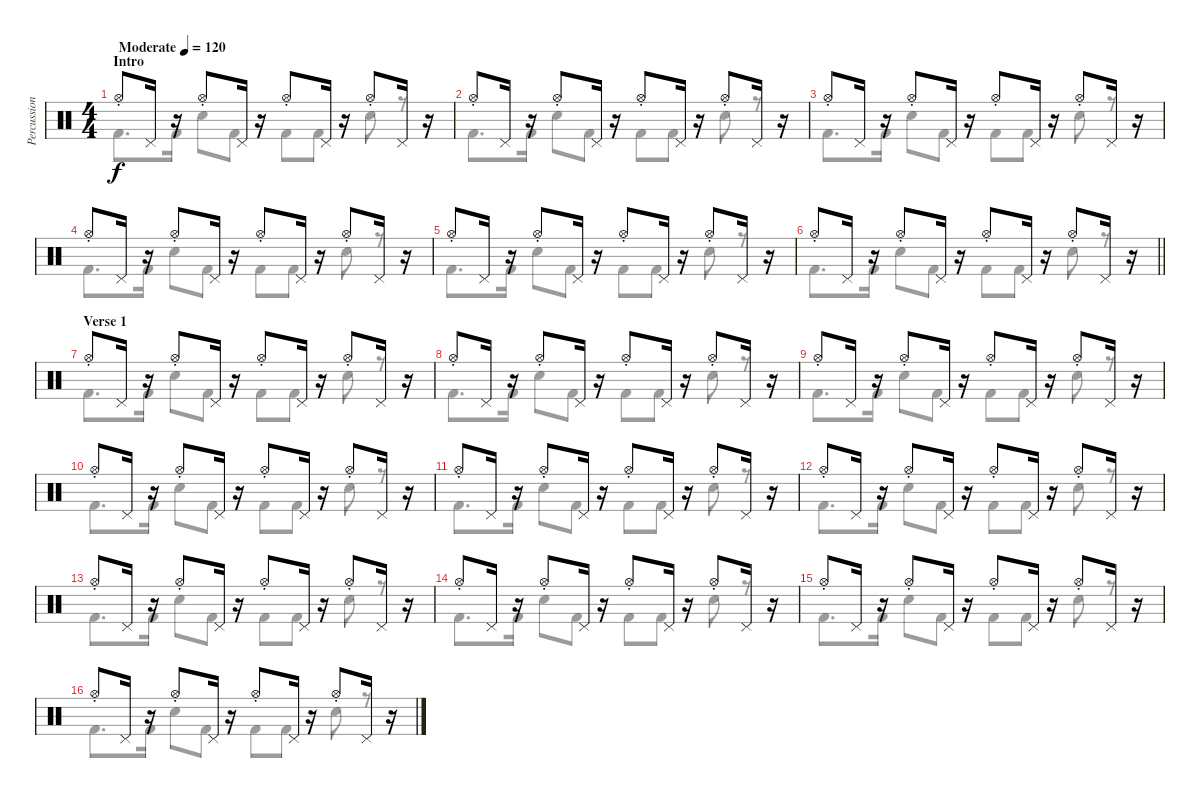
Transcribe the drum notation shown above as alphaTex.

\track ("Percussion" "Percussion") {instrument percussion}
\staff {score}
\articulation defaults
\voice
\ts (4 4)
\section ("" "Intro")
\tempo (120 "Moderate")
\clef neutral
\ks c "Hi-Hat (open)"{st}.8{dy f} "Pedal Hi-Hat (hit)".16
r.16 "Hi-Hat (open)"{st}.8 "Pedal Hi-Hat (hit)".16 r.16 "Hi-Hat (open)"{st}.8 "Pedal Hi-Hat (hit)".16 r.16 "Hi-Hat (open)"{st}.8 "Pedal Hi-Hat (hit)".16 r.16 |
"Hi-Hat (open)"{st}.8 "Pedal Hi-Hat (hit)".16 r.16 "Hi-Hat (open)"{st}.8 "Pedal Hi-Hat (hit)".16 r.16 "Hi-Hat (open)"{st}.8 "Pedal Hi-Hat (hit)".16 r.16 "Hi-Hat (open)"{st}.8 "Pedal Hi-Hat (hit)".16 r.16 |
"Hi-Hat (open)"{st}.8 "Pedal Hi-Hat (hit)".16 r.16 "Hi-Hat (open)"{st}.8 "Pedal Hi-Hat (hit)".16 r.16 "Hi-Hat (open)"{st}.8 "Pedal Hi-Hat (hit)".16 r.16 "Hi-Hat (open)"{st}.8 "Pedal Hi-Hat (hit)".16 r.16 |
"Hi-Hat (open)"{st}.8 "Pedal Hi-Hat (hit)".16 r.16 "Hi-Hat (open)"{st}.8 "Pedal Hi-Hat (hit)".16 r.16 "Hi-Hat (open)"{st}.8 "Pedal Hi-Hat (hit)".16 r.16 "Hi-Hat (open)"{st}.8 "Pedal Hi-Hat (hit)".16 r.16 |
"Hi-Hat (open)"{st}.8 "Pedal Hi-Hat (hit)".16 r.16 "Hi-Hat (open)"{st}.8 "Pedal Hi-Hat (hit)".16 r.16 "Hi-Hat (open)"{st}.8 "Pedal Hi-Hat (hit)".16 r.16 "Hi-Hat (open)"{st}.8 "Pedal Hi-Hat (hit)".16 r.16 |
\barLineRight lightlight "Hi-Hat (open)"{st}.8 "Pedal Hi-Hat (hit)".16
r.16 "Hi-Hat (open)"{st}.8 "Pedal Hi-Hat (hit)".16 r.16 "Hi-Hat (open)"{st}.8 "Pedal Hi-Hat (hit)".16 r.16 "Hi-Hat (open)"{st}.8 "Pedal Hi-Hat (hit)".16 r.16 |
\section ("" "Verse 1")
"Hi-Hat (open)"{st}.8 "Pedal Hi-Hat (hit)".16 r.16 "Hi-Hat (open)"{st}.8 "Pedal Hi-Hat (hit)".16 r.16 "Hi-Hat (open)"{st}.8 "Pedal Hi-Hat (hit)".16 r.16 "Hi-Hat (open)"{st}.8 "Pedal Hi-Hat (hit)".16 r.16 |
"Hi-Hat (open)"{st}.8 "Pedal Hi-Hat (hit)".16 r.16 "Hi-Hat (open)"{st}.8 "Pedal Hi-Hat (hit)".16 r.16 "Hi-Hat (open)"{st}.8 "Pedal Hi-Hat (hit)".16 r.16 "Hi-Hat (open)"{st}.8 "Pedal Hi-Hat (hit)".16 r.16 |
"Hi-Hat (open)"{st}.8 "Pedal Hi-Hat (hit)".16 r.16 "Hi-Hat (open)"{st}.8 "Pedal Hi-Hat (hit)".16 r.16 "Hi-Hat (open)"{st}.8 "Pedal Hi-Hat (hit)".16 r.16 "Hi-Hat (open)"{st}.8 "Pedal Hi-Hat (hit)".16 r.16 |
"Hi-Hat (open)"{st}.8 "Pedal Hi-Hat (hit)".16 r.16 "Hi-Hat (open)"{st}.8 "Pedal Hi-Hat (hit)".16 r.16 "Hi-Hat (open)"{st}.8 "Pedal Hi-Hat (hit)".16 r.16 "Hi-Hat (open)"{st}.8 "Pedal Hi-Hat (hit)".16 r.16 |
"Hi-Hat (open)"{st}.8 "Pedal Hi-Hat (hit)".16 r.16 "Hi-Hat (open)"{st}.8 "Pedal Hi-Hat (hit)".16 r.16 "Hi-Hat (open)"{st}.8 "Pedal Hi-Hat (hit)".16 r.16 "Hi-Hat (open)"{st}.8 "Pedal Hi-Hat (hit)".16 r.16 |
"Hi-Hat (open)"{st}.8 "Pedal Hi-Hat (hit)".16 r.16 "Hi-Hat (open)"{st}.8 "Pedal Hi-Hat (hit)".16 r.16 "Hi-Hat (open)"{st}.8 "Pedal Hi-Hat (hit)".16 r.16 "Hi-Hat (open)"{st}.8 "Pedal Hi-Hat (hit)".16 r.16 |
"Hi-Hat (open)"{st}.8 "Pedal Hi-Hat (hit)".16 r.16 "Hi-Hat (open)"{st}.8 "Pedal Hi-Hat (hit)".16 r.16 "Hi-Hat (open)"{st}.8 "Pedal Hi-Hat (hit)".16 r.16 "Hi-Hat (open)"{st}.8 "Pedal Hi-Hat (hit)".16 r.16 |
"Hi-Hat (open)"{st}.8 "Pedal Hi-Hat (hit)".16 r.16 "Hi-Hat (open)"{st}.8 "Pedal Hi-Hat (hit)".16 r.16 "Hi-Hat (open)"{st}.8 "Pedal Hi-Hat (hit)".16 r.16 "Hi-Hat (open)"{st}.8 "Pedal Hi-Hat (hit)".16 r.16 |
"Hi-Hat (open)"{st}.8 "Pedal Hi-Hat (hit)".16 r.16 "Hi-Hat (open)"{st}.8 "Pedal Hi-Hat (hit)".16 r.16 "Hi-Hat (open)"{st}.8 "Pedal Hi-Hat (hit)".16 r.16 "Hi-Hat (open)"{st}.8 "Pedal Hi-Hat (hit)".16 r.16 |
"Hi-Hat (open)"{st}.8 "Pedal Hi-Hat (hit)".16 r.16 "Hi-Hat (open)"{st}.8 "Pedal Hi-Hat (hit)".16 r.16 "Hi-Hat (open)"{st}.8 "Pedal Hi-Hat (hit)".16 r.16 "Hi-Hat (open)"{st}.8 "Pedal Hi-Hat (hit)".16 r.16
\voice
\clef neutral
\ottava regular
\simile none
\ks c "Kick (hit) 2".8{d dy f} "Kick (hit) 2".16 "Electric Snare (hit)".8 "Kick (hit) 2".8 "Kick (hit) 2".8 "Kick (hit) 2".8 "Electric Snare (hit)".8
r.8 |
"Kick (hit) 2".8{d} "Kick (hit) 2".16 "Electric Snare (hit)".8 "Kick (hit) 2".8 "Kick (hit) 2".8 "Kick (hit) 2".8 "Electric Snare (hit)".8 r.8 |
"Kick (hit) 2".8{d} "Kick (hit) 2".16 "Electric Snare (hit)".8 "Kick (hit) 2".8 "Kick (hit) 2".8 "Kick (hit) 2".8 "Electric Snare (hit)".8 r.8 |
"Kick (hit) 2".8{d} "Kick (hit) 2".16 "Electric Snare (hit)".8 "Kick (hit) 2".8 "Kick (hit) 2".8 "Kick (hit) 2".8 "Electric Snare (hit)".8 r.8 |
"Kick (hit) 2".8{d} "Kick (hit) 2".16 "Electric Snare (hit)".8 "Kick (hit) 2".8 "Kick (hit) 2".8 "Kick (hit) 2".8 "Electric Snare (hit)".8 r.8 |
\barLineRight lightlight "Kick (hit) 2".8{d} "Kick (hit) 2".16 "Electric Snare (hit)".8 "Kick (hit) 2".8 "Kick (hit) 2".8 "Kick (hit) 2".8 "Electric Snare (hit)".8
r.8 |
"Kick (hit) 2".8{d} "Kick (hit) 2".16 "Electric Snare (hit)".8 "Kick (hit) 2".8 "Kick (hit) 2".8 "Kick (hit) 2".8 "Electric Snare (hit)".8 r.8 |
"Kick (hit) 2".8{d} "Kick (hit) 2".16 "Electric Snare (hit)".8 "Kick (hit) 2".8 "Kick (hit) 2".8 "Kick (hit) 2".8 "Electric Snare (hit)".8 r.8 |
"Kick (hit) 2".8{d} "Kick (hit) 2".16 "Electric Snare (hit)".8 "Kick (hit) 2".8 "Kick (hit) 2".8 "Kick (hit) 2".8 "Electric Snare (hit)".8 r.8 |
"Kick (hit) 2".8{d} "Kick (hit) 2".16 "Electric Snare (hit)".8 "Kick (hit) 2".8 "Kick (hit) 2".8 "Kick (hit) 2".8 "Electric Snare (hit)".8 r.8 |
"Kick (hit) 2".8{d} "Kick (hit) 2".16 "Electric Snare (hit)".8 "Kick (hit) 2".8 "Kick (hit) 2".8 "Kick (hit) 2".8 "Electric Snare (hit)".8 r.8 |
"Kick (hit) 2".8{d} "Kick (hit) 2".16 "Electric Snare (hit)".8 "Kick (hit) 2".8 "Kick (hit) 2".8 "Kick (hit) 2".8 "Electric Snare (hit)".8 r.8 |
"Kick (hit) 2".8{d} "Kick (hit) 2".16 "Electric Snare (hit)".8 "Kick (hit) 2".8 "Kick (hit) 2".8 "Kick (hit) 2".8 "Electric Snare (hit)".8 r.8 |
"Kick (hit) 2".8{d} "Kick (hit) 2".16 "Electric Snare (hit)".8 "Kick (hit) 2".8 "Kick (hit) 2".8 "Kick (hit) 2".8 "Electric Snare (hit)".8 r.8 |
"Kick (hit) 2".8{d} "Kick (hit) 2".16 "Electric Snare (hit)".8 "Kick (hit) 2".8 "Kick (hit) 2".8 "Kick (hit) 2".8 "Electric Snare (hit)".8 r.8 |
"Kick (hit) 2".8{d} "Kick (hit) 2".16 "Electric Snare (hit)".8 "Kick (hit) 2".8 "Kick (hit) 2".8 "Kick (hit) 2".8 "Electric Snare (hit)".8 r.8
